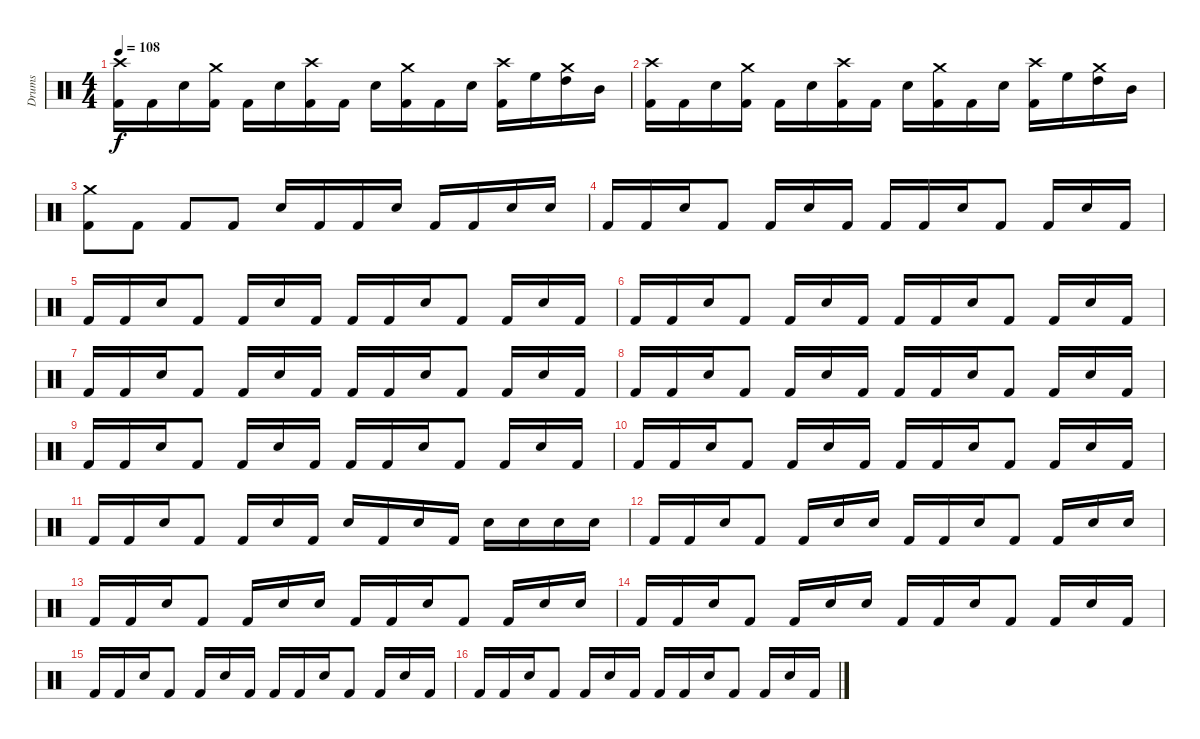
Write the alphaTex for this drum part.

\track ("Drums" "Drums") {instrument percussion}
\staff {score}
\articulation defaults
\ts (4 4)
\tempo 108
\clef neutral
\ks c
("Kick (hit) 2" "Crash high (hit)").16{dy f} "Kick (hit) 2".16 "Snare (hit) 2".16 ("Kick (hit) 2" "Crash medium (hit)").16 "Kick (hit) 2".16 "Snare (hit) 2".16 ("Kick (hit) 2" "Crash high (hit)").16 "Kick (hit) 2".16 "Snare (hit) 2".16 ("Kick (hit) 2" "Crash medium (hit)").16 "Kick (hit) 2".16 "Snare (hit) 2".16 ("Kick (hit) 2" "Crash high (hit)").16 "High Floor Tom (hit)".16 ("High Tom (hit)" "Crash medium (hit)").16 "Mid Tom (hit)".16 |
("Kick (hit) 2" "Crash high (hit)").16 "Kick (hit) 2".16 "Snare (hit) 2".16 ("Kick (hit) 2" "Crash medium (hit)").16 "Kick (hit) 2".16 "Snare (hit) 2".16 ("Kick (hit) 2" "Crash high (hit)").16 "Kick (hit) 2".16 "Snare (hit) 2".16 ("Kick (hit) 2" "Crash medium (hit)").16 "Kick (hit) 2".16 "Snare (hit) 2".16 ("Kick (hit) 2" "Crash high (hit)").16 "High Floor Tom (hit)".16 ("High Tom (hit)" "Crash medium (hit)").16 "Mid Tom (hit)".16 |
("Kick (hit) 2" "Crash medium (hit)").8 "Kick (hit) 2".8 "Kick (hit) 2".8 "Kick (hit) 2".8 "Snare (hit) 2".16 "Kick (hit) 2".16 "Kick (hit) 2".16 "Snare (hit) 2".16 "Kick (hit) 2".16 "Kick (hit) 2".16 "Snare (hit) 2".16 "Snare (hit) 2".16 |
"Kick (hit) 2".16 "Kick (hit) 2".16 "Snare (hit) 2".16 "Kick (hit) 2".8 "Kick (hit) 2".16 "Snare (hit) 2".16 "Kick (hit) 2".16 "Kick (hit) 2".16 "Kick (hit) 2".16 "Snare (hit) 2".16 "Kick (hit) 2".8 "Kick (hit) 2".16 "Snare (hit) 2".16 "Kick (hit) 2".16 |
"Kick (hit) 2".16 "Kick (hit) 2".16 "Snare (hit) 2".16 "Kick (hit) 2".8 "Kick (hit) 2".16 "Snare (hit) 2".16 "Kick (hit) 2".16 "Kick (hit) 2".16 "Kick (hit) 2".16 "Snare (hit) 2".16 "Kick (hit) 2".8 "Kick (hit) 2".16 "Snare (hit) 2".16 "Kick (hit) 2".16 |
"Kick (hit) 2".16 "Kick (hit) 2".16 "Snare (hit) 2".16 "Kick (hit) 2".8 "Kick (hit) 2".16 "Snare (hit) 2".16 "Kick (hit) 2".16 "Kick (hit) 2".16 "Kick (hit) 2".16 "Snare (hit) 2".16 "Kick (hit) 2".8 "Kick (hit) 2".16 "Snare (hit) 2".16 "Kick (hit) 2".16 |
"Kick (hit) 2".16 "Kick (hit) 2".16 "Snare (hit) 2".16 "Kick (hit) 2".8 "Kick (hit) 2".16 "Snare (hit) 2".16 "Kick (hit) 2".16 "Kick (hit) 2".16 "Kick (hit) 2".16 "Snare (hit) 2".16 "Kick (hit) 2".8 "Kick (hit) 2".16 "Snare (hit) 2".16 "Kick (hit) 2".16 |
"Kick (hit) 2".16 "Kick (hit) 2".16 "Snare (hit) 2".16 "Kick (hit) 2".8 "Kick (hit) 2".16 "Snare (hit) 2".16 "Kick (hit) 2".16 "Kick (hit) 2".16 "Kick (hit) 2".16 "Snare (hit) 2".16 "Kick (hit) 2".8 "Kick (hit) 2".16 "Snare (hit) 2".16 "Kick (hit) 2".16 |
"Kick (hit) 2".16 "Kick (hit) 2".16 "Snare (hit) 2".16 "Kick (hit) 2".8 "Kick (hit) 2".16 "Snare (hit) 2".16 "Kick (hit) 2".16 "Kick (hit) 2".16 "Kick (hit) 2".16 "Snare (hit) 2".16 "Kick (hit) 2".8 "Kick (hit) 2".16 "Snare (hit) 2".16 "Kick (hit) 2".16 |
"Kick (hit) 2".16 "Kick (hit) 2".16 "Snare (hit) 2".16 "Kick (hit) 2".8 "Kick (hit) 2".16 "Snare (hit) 2".16 "Kick (hit) 2".16 "Kick (hit) 2".16 "Kick (hit) 2".16 "Snare (hit) 2".16 "Kick (hit) 2".8 "Kick (hit) 2".16 "Snare (hit) 2".16 "Kick (hit) 2".16 |
"Kick (hit) 2".16 "Kick (hit) 2".16 "Snare (hit) 2".16 "Kick (hit) 2".8 "Kick (hit) 2".16 "Snare (hit) 2".16 "Kick (hit) 2".16 "Snare (hit) 2".16 "Kick (hit) 2".16 "Snare (hit) 2".16 "Kick (hit) 2".16 "Snare (hit) 2".16 "Snare (hit) 2".16 "Snare (hit) 2".16 "Snare (hit) 2".16 |
"Kick (hit) 2".16 "Kick (hit) 2".16 "Snare (hit) 2".16 "Kick (hit) 2".8 "Kick (hit) 2".16 "Snare (hit) 2".16 "Snare (hit) 2".16 "Kick (hit) 2".16 "Kick (hit) 2".16 "Snare (hit) 2".16 "Kick (hit) 2".8 "Kick (hit) 2".16 "Snare (hit) 2".16 "Snare (hit) 2".16 |
"Kick (hit) 2".16 "Kick (hit) 2".16 "Snare (hit) 2".16 "Kick (hit) 2".8 "Kick (hit) 2".16 "Snare (hit) 2".16 "Snare (hit) 2".16 "Kick (hit) 2".16 "Kick (hit) 2".16 "Snare (hit) 2".16 "Kick (hit) 2".8 "Kick (hit) 2".16 "Snare (hit) 2".16 "Snare (hit) 2".16 |
"Kick (hit) 2".16 "Kick (hit) 2".16 "Snare (hit) 2".16 "Kick (hit) 2".8 "Kick (hit) 2".16 "Snare (hit) 2".16 "Snare (hit) 2".16 "Kick (hit) 2".16 "Kick (hit) 2".16 "Snare (hit) 2".16 "Kick (hit) 2".8 "Kick (hit) 2".16 "Snare (hit) 2".16 "Kick (hit) 2".16 |
"Kick (hit) 2".16 "Kick (hit) 2".16 "Snare (hit) 2".16 "Kick (hit) 2".8 "Kick (hit) 2".16 "Snare (hit) 2".16 "Kick (hit) 2".16 "Kick (hit) 2".16 "Kick (hit) 2".16 "Snare (hit) 2".16 "Kick (hit) 2".8 "Kick (hit) 2".16 "Snare (hit) 2".16 "Kick (hit) 2".16 |
"Kick (hit) 2".16 "Kick (hit) 2".16 "Snare (hit) 2".16 "Kick (hit) 2".8 "Kick (hit) 2".16 "Snare (hit) 2".16 "Kick (hit) 2".16 "Kick (hit) 2".16 "Kick (hit) 2".16 "Snare (hit) 2".16 "Kick (hit) 2".8 "Kick (hit) 2".16 "Snare (hit) 2".16 "Kick (hit) 2".16
